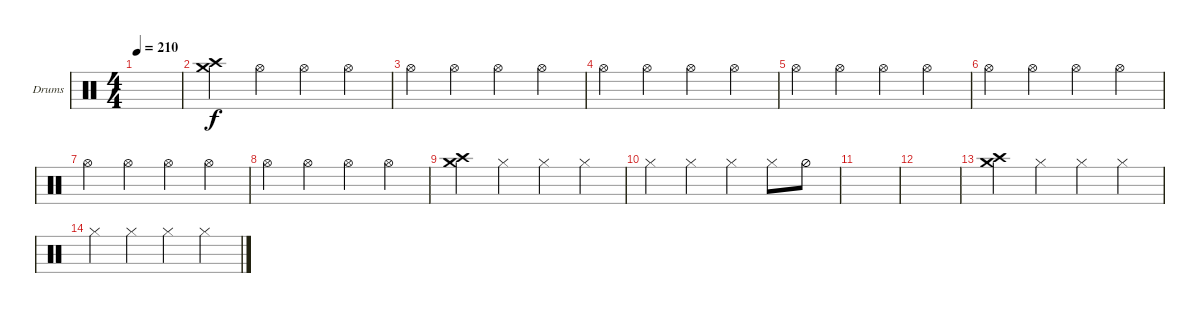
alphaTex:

\defaultSystemsLayout 4
\bracketExtendMode groupsimilarinstruments
\firstSystemTrackNameOrientation horizontal
\otherSystemsTrackNameOrientation horizontal
\track ("Helders" "Drums") {instrument percussion}
\staff {score}
\articulation defaults
\ts (4 4)
\tempo 210
\clef neutral
\ks c
|
("Crash high (hit)" "Crash medium (hit)").4 "Hi-Hat (open)".4 "Hi-Hat (open)".4 "Hi-Hat (open)".4 |
"Hi-Hat (open)".4 "Hi-Hat (open)".4 "Hi-Hat (open)".4 "Hi-Hat (open)".4 |
"Hi-Hat (open)".4 "Hi-Hat (open)".4 "Hi-Hat (open)".4 "Hi-Hat (open)".4 |
"Hi-Hat (open)".4 "Hi-Hat (open)".4 "Hi-Hat (open)".4 "Hi-Hat (open)".4 |
"Hi-Hat (open)".4 "Hi-Hat (open)".4 "Hi-Hat (open)".4 "Hi-Hat (open)".4 |
"Hi-Hat (open)".4 "Hi-Hat (open)".4 "Hi-Hat (open)".4 "Hi-Hat (open)".4 |
"Hi-Hat (open)".4 "Hi-Hat (open)".4 "Hi-Hat (open)".4 "Hi-Hat (open)".4 |
("Crash high (hit)" "Crash medium (hit)").4 "Hi-Hat (closed)".4 "Hi-Hat (closed)".4 "Hi-Hat (closed)".4 |
"Hi-Hat (closed)".4 "Hi-Hat (closed)".4 "Hi-Hat (closed)".4 "Hi-Hat (closed)".8 "Hi-Hat (half)".8 |
|
|
("Crash high (hit)" "Crash medium (hit)").4 "Hi-Hat (closed)".4 "Hi-Hat (closed)".4 "Hi-Hat (closed)".4 |
"Hi-Hat (closed)".4 "Hi-Hat (closed)".4 "Hi-Hat (closed)".4 "Hi-Hat (closed)".4
